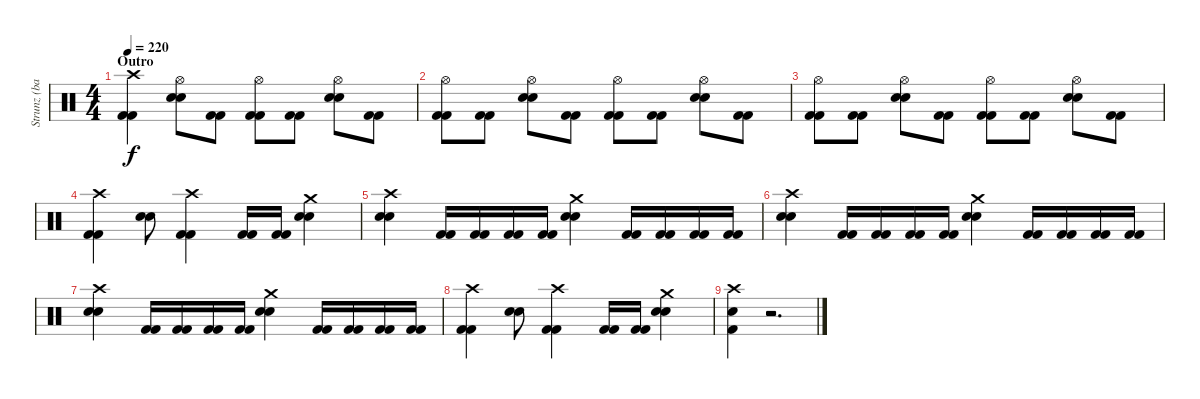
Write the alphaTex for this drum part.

\track ("Strunz (bateria)" "Strunz (ba") {instrument percussion}
\staff {score}
\articulation defaults
\ts (4 4)
\section ("" "Outro")
\tempo 220
\clef neutral
\ks c
("Crash high (hit)" "Kick (hit) 2" "Kick (hit) 2").4{dy f} ("Hi-Hat (open)" "Snare (hit) 2" "Snare (hit) 2").8 ("Kick (hit) 2" "Kick (hit) 2").8 ("Hi-Hat (open)" "Kick (hit) 2" "Kick (hit) 2").8 ("Kick (hit) 2" "Kick (hit) 2").8 ("Hi-Hat (open)" "Snare (hit) 2" "Snare (hit) 2").8 ("Kick (hit) 2" "Kick (hit) 2").8 |
("Hi-Hat (open)" "Kick (hit) 2" "Kick (hit) 2").8 ("Kick (hit) 2" "Kick (hit) 2").8 ("Hi-Hat (open)" "Snare (hit) 2" "Snare (hit) 2").8 ("Kick (hit) 2" "Kick (hit) 2").8 ("Hi-Hat (open)" "Kick (hit) 2" "Kick (hit) 2").8 ("Kick (hit) 2" "Kick (hit) 2").8 ("Hi-Hat (open)" "Snare (hit) 2" "Snare (hit) 2").8 ("Kick (hit) 2" "Kick (hit) 2").8 |
("Hi-Hat (open)" "Kick (hit) 2" "Kick (hit) 2").8 ("Kick (hit) 2" "Kick (hit) 2").8 ("Hi-Hat (open)" "Snare (hit) 2" "Snare (hit) 2").8 ("Kick (hit) 2" "Kick (hit) 2").8 ("Hi-Hat (open)" "Kick (hit) 2" "Kick (hit) 2").8 ("Kick (hit) 2" "Kick (hit) 2").8 ("Hi-Hat (open)" "Snare (hit) 2" "Snare (hit) 2").8 ("Kick (hit) 2" "Kick (hit) 2").8 |
("Crash high (hit)" "Kick (hit) 2" "Kick (hit) 2").4 ("Snare (hit) 2" "Snare (hit) 2").8 ("Crash high (hit)" "Kick (hit) 2" "Kick (hit) 2").4 ("Kick (hit) 2" "Kick (hit) 2").16 ("Kick (hit) 2" "Kick (hit) 2").16 ("Crash medium (hit)" "Snare (hit) 2" "Snare (hit) 2").4 |
("Crash high (hit)" "Snare (hit) 2" "Snare (hit) 2").4 ("Kick (hit) 2" "Kick (hit) 2").16 ("Kick (hit) 2" "Kick (hit) 2").16 ("Kick (hit) 2" "Kick (hit) 2").16 ("Kick (hit) 2" "Kick (hit) 2").16 ("Crash medium (hit)" "Snare (hit) 2" "Snare (hit) 2").4 ("Kick (hit) 2" "Kick (hit) 2").16 ("Kick (hit) 2" "Kick (hit) 2").16 ("Kick (hit) 2" "Kick (hit) 2").16 ("Kick (hit) 2" "Kick (hit) 2").16 |
("Crash high (hit)" "Snare (hit) 2" "Snare (hit) 2").4 ("Kick (hit) 2" "Kick (hit) 2").16 ("Kick (hit) 2" "Kick (hit) 2").16 ("Kick (hit) 2" "Kick (hit) 2").16 ("Kick (hit) 2" "Kick (hit) 2").16 ("Crash medium (hit)" "Snare (hit) 2" "Snare (hit) 2").4 ("Kick (hit) 2" "Kick (hit) 2").16 ("Kick (hit) 2" "Kick (hit) 2").16 ("Kick (hit) 2" "Kick (hit) 2").16 ("Kick (hit) 2" "Kick (hit) 2").16 |
("Crash high (hit)" "Snare (hit) 2" "Snare (hit) 2").4 ("Kick (hit) 2" "Kick (hit) 2").16 ("Kick (hit) 2" "Kick (hit) 2").16 ("Kick (hit) 2" "Kick (hit) 2").16 ("Kick (hit) 2" "Kick (hit) 2").16 ("Crash medium (hit)" "Snare (hit) 2" "Snare (hit) 2").4 ("Kick (hit) 2" "Kick (hit) 2").16 ("Kick (hit) 2" "Kick (hit) 2").16 ("Kick (hit) 2" "Kick (hit) 2").16 ("Kick (hit) 2" "Kick (hit) 2").16 |
("Crash high (hit)" "Kick (hit) 2" "Kick (hit) 2").4 ("Snare (hit) 2" "Snare (hit) 2").8 ("Crash high (hit)" "Kick (hit) 2" "Kick (hit) 2").4 ("Kick (hit) 2" "Kick (hit) 2").16 ("Kick (hit) 2" "Kick (hit) 2").16 ("Crash medium (hit)" "Snare (hit) 2" "Snare (hit) 2").4 |
("Crash high (hit)" "Snare (hit) 2" "Kick (hit) 2").4 r.2{d}
